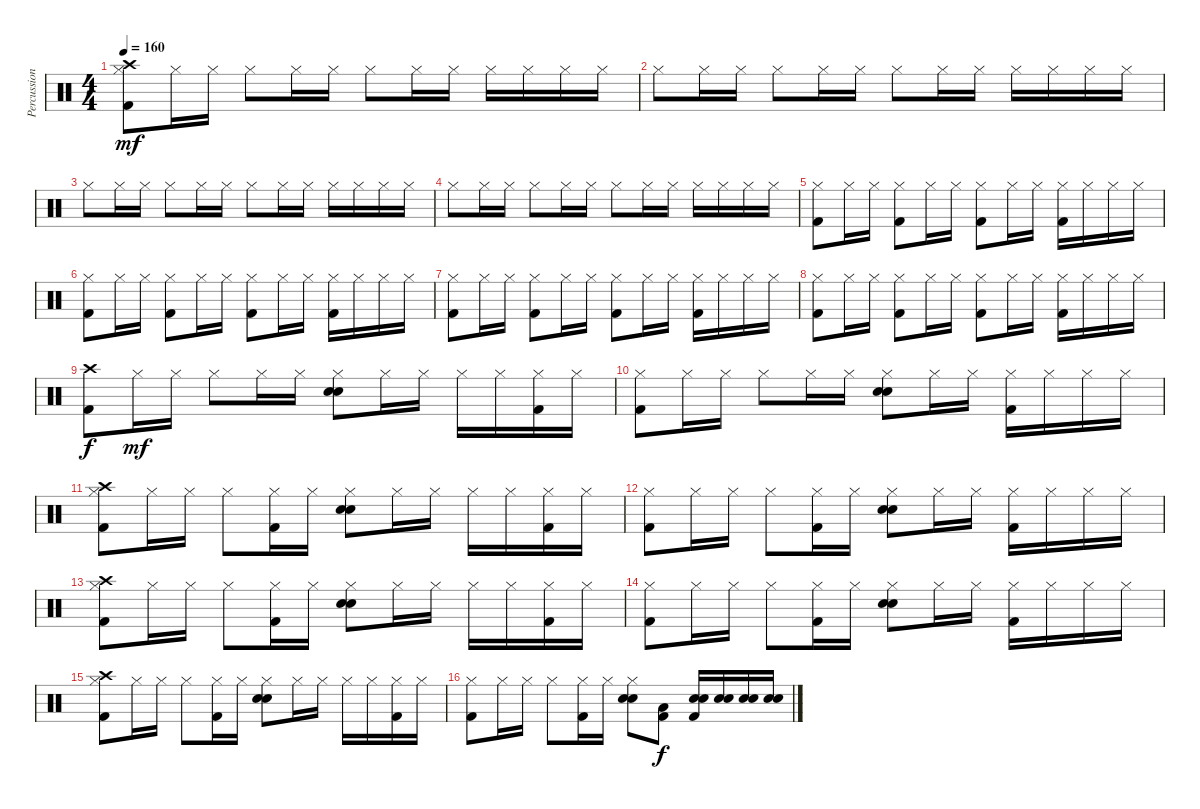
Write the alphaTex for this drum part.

\track ("Percussion" "Percussion") {instrument percussion}
\staff {score}
\articulation defaults
\ts (4 4)
\section ("" "")
\tempo 160
\clef neutral
\ks c
("Crash high (hit)" "Hi-Hat (closed)" "Kick (hit) 2").8{dy mf} "Hi-Hat (closed)".16 "Hi-Hat (closed)".16 "Hi-Hat (closed)".8 "Hi-Hat (closed)".16 "Hi-Hat (closed)".16 "Hi-Hat (closed)".8 "Hi-Hat (closed)".16 "Hi-Hat (closed)".16 "Hi-Hat (closed)".16 "Hi-Hat (closed)".16 "Hi-Hat (closed)".16 "Hi-Hat (closed)".16 |
"Hi-Hat (closed)".8 "Hi-Hat (closed)".16 "Hi-Hat (closed)".16 "Hi-Hat (closed)".8 "Hi-Hat (closed)".16 "Hi-Hat (closed)".16 "Hi-Hat (closed)".8 "Hi-Hat (closed)".16 "Hi-Hat (closed)".16 "Hi-Hat (closed)".16 "Hi-Hat (closed)".16 "Hi-Hat (closed)".16 "Hi-Hat (closed)".16 |
"Hi-Hat (closed)".8 "Hi-Hat (closed)".16 "Hi-Hat (closed)".16 "Hi-Hat (closed)".8 "Hi-Hat (closed)".16 "Hi-Hat (closed)".16 "Hi-Hat (closed)".8 "Hi-Hat (closed)".16 "Hi-Hat (closed)".16 "Hi-Hat (closed)".16 "Hi-Hat (closed)".16 "Hi-Hat (closed)".16 "Hi-Hat (closed)".16 |
"Hi-Hat (closed)".8 "Hi-Hat (closed)".16 "Hi-Hat (closed)".16 "Hi-Hat (closed)".8 "Hi-Hat (closed)".16 "Hi-Hat (closed)".16 "Hi-Hat (closed)".8 "Hi-Hat (closed)".16 "Hi-Hat (closed)".16 "Hi-Hat (closed)".16 "Hi-Hat (closed)".16 "Hi-Hat (closed)".16 "Hi-Hat (closed)".16 |
("Hi-Hat (closed)" "Kick (hit) 2").8 "Hi-Hat (closed)".16 "Hi-Hat (closed)".16 ("Hi-Hat (closed)" "Kick (hit) 2").8 "Hi-Hat (closed)".16 "Hi-Hat (closed)".16 ("Hi-Hat (closed)" "Kick (hit) 2").8 "Hi-Hat (closed)".16 "Hi-Hat (closed)".16 ("Hi-Hat (closed)" "Kick (hit) 2").16 "Hi-Hat (closed)".16 "Hi-Hat (closed)".16 "Hi-Hat (closed)".16 |
("Hi-Hat (closed)" "Kick (hit) 2").8 "Hi-Hat (closed)".16 "Hi-Hat (closed)".16 ("Hi-Hat (closed)" "Kick (hit) 2").8 "Hi-Hat (closed)".16 "Hi-Hat (closed)".16 ("Hi-Hat (closed)" "Kick (hit) 2").8 "Hi-Hat (closed)".16 "Hi-Hat (closed)".16 ("Hi-Hat (closed)" "Kick (hit) 2").16 "Hi-Hat (closed)".16 "Hi-Hat (closed)".16 "Hi-Hat (closed)".16 |
("Hi-Hat (closed)" "Kick (hit) 2").8 "Hi-Hat (closed)".16 "Hi-Hat (closed)".16 ("Hi-Hat (closed)" "Kick (hit) 2").8 "Hi-Hat (closed)".16 "Hi-Hat (closed)".16 ("Hi-Hat (closed)" "Kick (hit) 2").8 "Hi-Hat (closed)".16 "Hi-Hat (closed)".16 ("Hi-Hat (closed)" "Kick (hit) 2").16 "Hi-Hat (closed)".16 "Hi-Hat (closed)".16 "Hi-Hat (closed)".16 |
("Hi-Hat (closed)" "Kick (hit) 2").8 "Hi-Hat (closed)".16 "Hi-Hat (closed)".16 ("Hi-Hat (closed)" "Kick (hit) 2").8 "Hi-Hat (closed)".16 "Hi-Hat (closed)".16 ("Hi-Hat (closed)" "Kick (hit) 2").8 "Hi-Hat (closed)".16 "Hi-Hat (closed)".16 ("Hi-Hat (closed)" "Kick (hit) 2").16 "Hi-Hat (closed)".16 "Hi-Hat (closed)".16 "Hi-Hat (closed)".16 |
\section ("" "")
("Crash high (hit)" "Kick (hit) 2").8{dy f} "Hi-Hat (closed)".16{dy mf} "Hi-Hat (closed)".16 "Hi-Hat (closed)".8 "Hi-Hat (closed)".16 "Hi-Hat (closed)".16 ("Hi-Hat (closed)" "Electric Snare (hit)" "Snare (hit) 2").8 "Hi-Hat (closed)".16 "Hi-Hat (closed)".16 "Hi-Hat (closed)".16 "Hi-Hat (closed)".16 ("Hi-Hat (closed)" "Kick (hit) 2").16 "Hi-Hat (closed)".16 |
("Hi-Hat (closed)" "Kick (hit) 2").8 "Hi-Hat (closed)".16 "Hi-Hat (closed)".16 "Hi-Hat (closed)".8 "Hi-Hat (closed)".16 "Hi-Hat (closed)".16 ("Hi-Hat (closed)" "Electric Snare (hit)" "Snare (hit) 2").8 "Hi-Hat (closed)".16 "Hi-Hat (closed)".16 ("Hi-Hat (closed)" "Kick (hit) 2").16 "Hi-Hat (closed)".16 "Hi-Hat (closed)".16 "Hi-Hat (closed)".16 |
("Crash high (hit)" "Hi-Hat (closed)" "Kick (hit) 2").8 "Hi-Hat (closed)".16 "Hi-Hat (closed)".16 "Hi-Hat (closed)".8 ("Hi-Hat (closed)" "Kick (hit) 2").16 "Hi-Hat (closed)".16 ("Hi-Hat (closed)" "Electric Snare (hit)" "Snare (hit) 2").8 "Hi-Hat (closed)".16 "Hi-Hat (closed)".16 "Hi-Hat (closed)".16 "Hi-Hat (closed)".16 ("Hi-Hat (closed)" "Kick (hit) 2").16 "Hi-Hat (closed)".16 |
("Hi-Hat (closed)" "Kick (hit) 2").8 "Hi-Hat (closed)".16 "Hi-Hat (closed)".16 "Hi-Hat (closed)".8 ("Hi-Hat (closed)" "Kick (hit) 2").16 "Hi-Hat (closed)".16 ("Hi-Hat (closed)" "Electric Snare (hit)" "Snare (hit) 2").8 "Hi-Hat (closed)".16 "Hi-Hat (closed)".16 ("Hi-Hat (closed)" "Kick (hit) 2").16 "Hi-Hat (closed)".16 "Hi-Hat (closed)".16 "Hi-Hat (closed)".16 |
("Crash high (hit)" "Hi-Hat (closed)" "Kick (hit) 2").8 "Hi-Hat (closed)".16 "Hi-Hat (closed)".16 "Hi-Hat (closed)".8 ("Hi-Hat (closed)" "Kick (hit) 2").16 "Hi-Hat (closed)".16 ("Hi-Hat (closed)" "Electric Snare (hit)" "Snare (hit) 2").8 "Hi-Hat (closed)".16 "Hi-Hat (closed)".16 "Hi-Hat (closed)".16 "Hi-Hat (closed)".16 ("Hi-Hat (closed)" "Kick (hit) 2").16 "Hi-Hat (closed)".16 |
("Hi-Hat (closed)" "Kick (hit) 2").8 "Hi-Hat (closed)".16 "Hi-Hat (closed)".16 "Hi-Hat (closed)".8 ("Hi-Hat (closed)" "Kick (hit) 2").16 "Hi-Hat (closed)".16 ("Hi-Hat (closed)" "Electric Snare (hit)" "Snare (hit) 2").8 "Hi-Hat (closed)".16 "Hi-Hat (closed)".16 ("Hi-Hat (closed)" "Kick (hit) 2").16 "Hi-Hat (closed)".16 "Hi-Hat (closed)".16 "Hi-Hat (closed)".16 |
("Crash high (hit)" "Hi-Hat (closed)" "Kick (hit) 2").8 "Hi-Hat (closed)".16 "Hi-Hat (closed)".16 "Hi-Hat (closed)".8 ("Hi-Hat (closed)" "Kick (hit) 2").16 "Hi-Hat (closed)".16 ("Hi-Hat (closed)" "Electric Snare (hit)" "Snare (hit) 2").8 "Hi-Hat (closed)".16 "Hi-Hat (closed)".16 "Hi-Hat (closed)".16 "Hi-Hat (closed)".16 ("Hi-Hat (closed)" "Kick (hit) 2").16 "Hi-Hat (closed)".16 |
("Hi-Hat (closed)" "Kick (hit) 2").8 "Hi-Hat (closed)".16 "Hi-Hat (closed)".16 "Hi-Hat (closed)".8 ("Hi-Hat (closed)" "Kick (hit) 2").16 "Hi-Hat (closed)".16 ("Hi-Hat (closed)" "Electric Snare (hit)" "Snare (hit) 2").8 ("Low Tom (hit)" "Kick (hit) 2").8{dy f} ("Electric Snare (hit)" "Snare (hit) 2" "Kick (hit) 2").16 ("Electric Snare (hit)" "Snare (hit) 2").16 ("Electric Snare (hit)" "Snare (hit) 2").16 ("Electric Snare (hit)" "Snare (hit) 2").16
